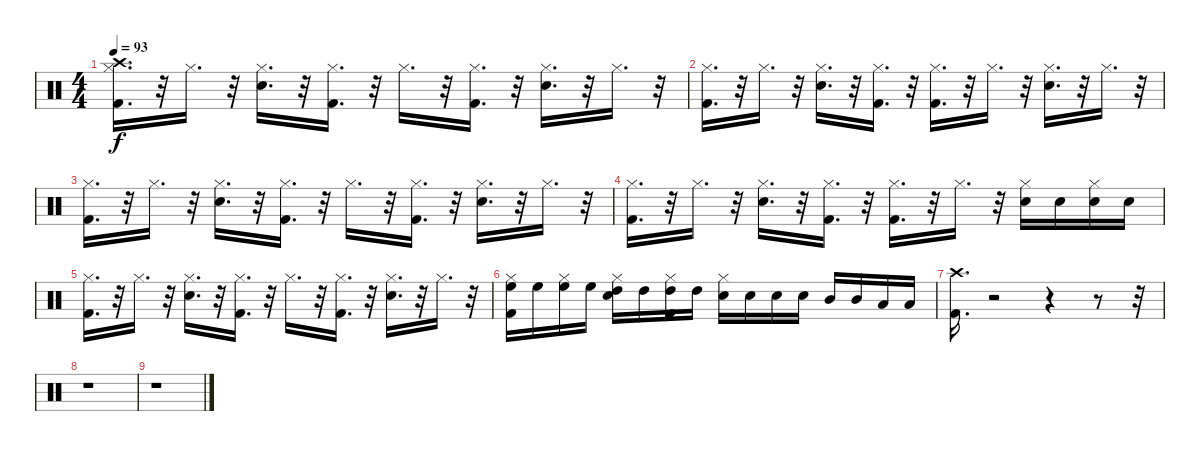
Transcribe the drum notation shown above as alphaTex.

\track "" {instrument percussion}
\staff {score}
\articulation defaults
\ts (4 4)
\tempo 93
\clef neutral
\ks c
("Hi-Hat (closed)" "Crash high (hit)" "Kick (hit) 2").16{d dy f} r.32 "Hi-Hat (closed)".16{d} r.32 ("Hi-Hat (closed)" "Snare (hit) 2").16{d} r.32 ("Hi-Hat (closed)" "Kick (hit) 2").16{d} r.32 "Hi-Hat (closed)".16{d} r.32 ("Hi-Hat (closed)" "Kick (hit) 2").16{d} r.32 ("Hi-Hat (closed)" "Snare (hit) 2").16{d} r.32 "Hi-Hat (closed)".16{d} r.32 |
("Hi-Hat (closed)" "Kick (hit) 2").16{d} r.32 "Hi-Hat (closed)".16{d} r.32 ("Hi-Hat (closed)" "Snare (hit) 2").16{d} r.32 ("Hi-Hat (closed)" "Kick (hit) 2").16{d} r.32 ("Hi-Hat (closed)" "Kick (hit) 2").16{d} r.32 "Hi-Hat (closed)".16{d} r.32 ("Hi-Hat (closed)" "Snare (hit) 2").16{d} r.32 "Hi-Hat (closed)".16{d} r.32 |
("Hi-Hat (closed)" "Kick (hit) 2").16{d} r.32 "Hi-Hat (closed)".16{d} r.32 ("Hi-Hat (closed)" "Snare (hit) 2").16{d} r.32 ("Hi-Hat (closed)" "Kick (hit) 2").16{d} r.32 "Hi-Hat (closed)".16{d} r.32 ("Hi-Hat (closed)" "Kick (hit) 2").16{d} r.32 ("Hi-Hat (closed)" "Snare (hit) 2").16{d} r.32 "Hi-Hat (closed)".16{d} r.32 |
("Hi-Hat (closed)" "Kick (hit) 2").16{d} r.32 "Hi-Hat (closed)".16{d} r.32 ("Hi-Hat (closed)" "Snare (hit) 2").16{d} r.32 ("Hi-Hat (closed)" "Kick (hit) 2").16{d} r.32 ("Hi-Hat (closed)" "Kick (hit) 2").16{d} r.32 "Hi-Hat (closed)".16{d} r.32 ("Hi-Hat (closed)" "Snare (hit) 2").16 "Snare (hit) 2".16 ("Snare (hit) 2" "Hi-Hat (closed)").16 "Snare (hit) 2".16 |
("Hi-Hat (closed)" "Kick (hit) 2").16{d} r.32 "Hi-Hat (closed)".16{d} r.32 ("Hi-Hat (closed)" "Snare (hit) 2").16{d} r.32 ("Hi-Hat (closed)" "Kick (hit) 2").16{d} r.32 "Hi-Hat (closed)".16{d} r.32 ("Hi-Hat (closed)" "Kick (hit) 2").16{d} r.32 ("Hi-Hat (closed)" "Snare (hit) 2").16{d} r.32 "Hi-Hat (closed)".16{d} r.32 |
("High Floor Tom (hit)" "Hi-Hat (closed)" "Kick (hit) 2").16 "High Floor Tom (hit)".16 ("High Floor Tom (hit)" "Hi-Hat (closed)").16 "High Floor Tom (hit)".16 ("High Tom (hit)" "Hi-Hat (closed)" "Snare (hit) 2").16 "High Tom (hit)".16 ("High Tom (hit)" "Hi-Hat (closed)" "Kick (hit) 2").16 "High Tom (hit)".16 ("Snare (hit) 2" "Hi-Hat (closed)").16 "Snare (hit) 2".16 "Snare (hit) 2".16 "Snare (hit) 2".16 "Mid Tom (hit)".16 "Mid Tom (hit)".16 "Low Tom (hit)".16 "Low Tom (hit)".16 |
("Crash high (hit)" "Kick (hit) 2").16{d} r.2 r.4 r.8 r.32 |
r.1 |
r.1
